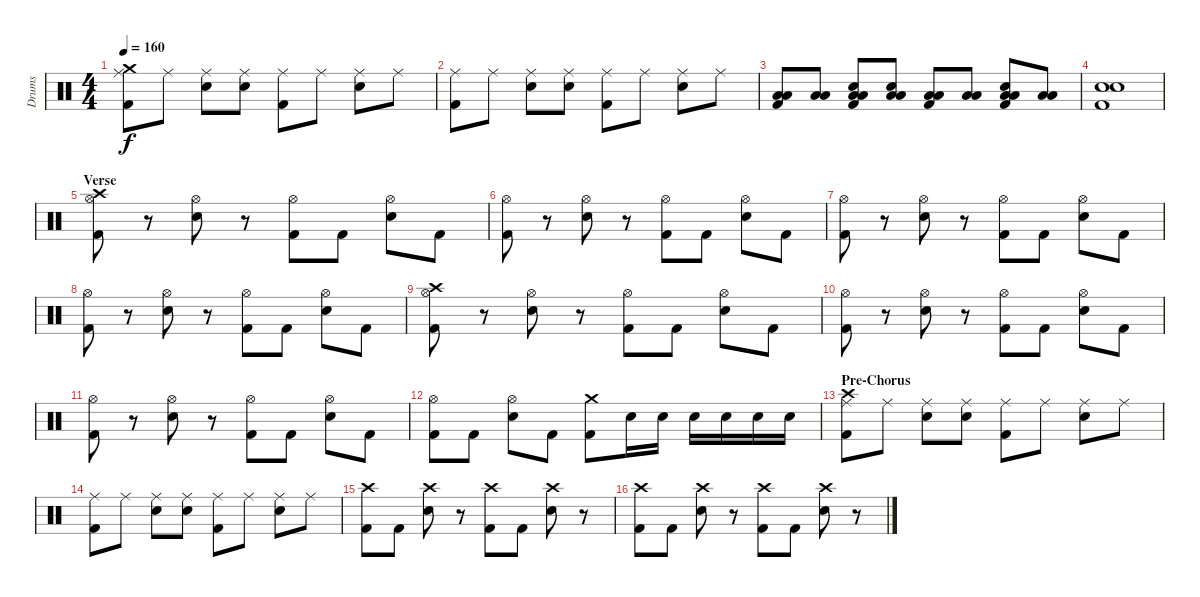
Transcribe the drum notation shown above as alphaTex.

\track ("Drums" "Drums") {instrument percussion}
\staff {score}
\articulation defaults
\ts (4 4)
\tempo 160
\clef neutral
\ks c
("Ride (middle)" "Crash medium (hit)" "Kick (hit) 2").8{dy f} "Ride (middle)".8 ("Ride (middle)" "Snare (hit) 2").8 ("Ride (middle)" "Snare (hit) 2").8 ("Ride (middle)" "Kick (hit) 2").8 "Ride (middle)".8 ("Ride (middle)" "Snare (hit) 2").8 "Ride (middle)".8 |
("Ride (middle)" "Kick (hit) 2").8 "Ride (middle)".8 ("Ride (middle)" "Snare (hit) 2").8 ("Ride (middle)" "Snare (hit) 2").8 ("Ride (middle)" "Kick (hit) 2").8 "Ride (middle)".8 ("Ride (middle)" "Snare (hit) 2").8 "Ride (middle)".8 |
("Low Tom (hit)" "Low Floor Tom (hit)" "Kick (hit) 2").8 ("Low Tom (hit)" "Low Floor Tom (hit)").8 ("Low Tom (hit)" "Low Floor Tom (hit)" "Snare (hit) 2" "Kick (hit) 2").8 ("Low Tom (hit)" "Low Floor Tom (hit)" "Snare (hit) 2").8 ("Low Tom (hit)" "Low Floor Tom (hit)" "Kick (hit) 2").8 ("Low Tom (hit)" "Low Floor Tom (hit)").8 ("Low Tom (hit)" "Low Floor Tom (hit)" "Snare (hit) 2" "Kick (hit) 2").8 ("Low Tom (hit)" "Low Floor Tom (hit)").8 |
("Snare (hit) 2" "Snare (hit) 2" "Kick (hit) 2").1 |
\section ("" "Verse")
("Hi-Hat (open)" "Crash high (hit)" "Kick (hit) 2").8 r.8 ("Hi-Hat (open)" "Snare (hit) 2").8 r.8 ("Hi-Hat (open)" "Kick (hit) 2").8 "Kick (hit) 2".8 ("Hi-Hat (open)" "Snare (hit) 2").8 "Kick (hit) 2".8 |
("Hi-Hat (open)" "Kick (hit) 2").8 r.8 ("Hi-Hat (open)" "Snare (hit) 2").8 r.8 ("Hi-Hat (open)" "Kick (hit) 2").8 "Kick (hit) 2".8 ("Hi-Hat (open)" "Snare (hit) 2").8 "Kick (hit) 2".8 |
("Hi-Hat (open)" "Kick (hit) 2").8 r.8 ("Hi-Hat (open)" "Snare (hit) 2").8 r.8 ("Hi-Hat (open)" "Kick (hit) 2").8 "Kick (hit) 2".8 ("Hi-Hat (open)" "Snare (hit) 2").8 "Kick (hit) 2".8 |
("Hi-Hat (open)" "Kick (hit) 2").8 r.8 ("Hi-Hat (open)" "Snare (hit) 2").8 r.8 ("Hi-Hat (open)" "Kick (hit) 2").8 "Kick (hit) 2".8 ("Hi-Hat (open)" "Snare (hit) 2").8 "Kick (hit) 2".8 |
("Hi-Hat (open)" "Crash high (hit)" "Kick (hit) 2").8 r.8 ("Hi-Hat (open)" "Snare (hit) 2").8 r.8 ("Hi-Hat (open)" "Kick (hit) 2").8 "Kick (hit) 2".8 ("Hi-Hat (open)" "Snare (hit) 2").8 "Kick (hit) 2".8 |
("Hi-Hat (open)" "Kick (hit) 2").8 r.8 ("Hi-Hat (open)" "Snare (hit) 2").8 r.8 ("Hi-Hat (open)" "Kick (hit) 2").8 "Kick (hit) 2".8 ("Hi-Hat (open)" "Snare (hit) 2").8 "Kick (hit) 2".8 |
("Hi-Hat (open)" "Kick (hit) 2").8 r.8 ("Hi-Hat (open)" "Snare (hit) 2").8 r.8 ("Hi-Hat (open)" "Kick (hit) 2").8 "Kick (hit) 2".8 ("Hi-Hat (open)" "Snare (hit) 2").8 "Kick (hit) 2".8 |
("Hi-Hat (open)" "Kick (hit) 2").8 "Kick (hit) 2".8 ("Hi-Hat (open)" "Snare (hit) 2").8 "Kick (hit) 2".8 ("Crash medium (hit)" "Kick (hit) 2").8 "Snare (hit) 2".16 "Snare (hit) 2".16 "Snare (hit) 2".16 "Snare (hit) 2".16 "Snare (hit) 2".16 "Snare (hit) 2".16 |
\section ("" "Pre-Chorus")
("Ride (middle)" "Crash high (hit)" "Kick (hit) 2").8 "Ride (middle)".8 ("Ride (middle)" "Snare (hit) 2").8 ("Ride (middle)" "Snare (hit) 2").8 ("Ride (middle)" "Kick (hit) 2").8 "Ride (middle)".8 ("Ride (middle)" "Snare (hit) 2").8 "Ride (middle)".8 |
("Ride (middle)" "Kick (hit) 2").8 "Ride (middle)".8 ("Ride (middle)" "Snare (hit) 2").8 ("Ride (middle)" "Snare (hit) 2").8 ("Ride (middle)" "Kick (hit) 2").8 "Ride (middle)".8 ("Ride (middle)" "Snare (hit) 2").8 "Ride (middle)".8 |
("Crash high (hit)" "Kick (hit) 2").8 "Kick (hit) 2".8 ("Crash high (hit)" "Snare (hit) 2").8 r.8 ("Crash high (hit)" "Kick (hit) 2").8 "Kick (hit) 2".8 ("Crash high (hit)" "Snare (hit) 2").8 r.8 |
("Crash high (hit)" "Kick (hit) 2").8 "Kick (hit) 2".8 ("Crash high (hit)" "Snare (hit) 2").8 r.8 ("Crash high (hit)" "Kick (hit) 2").8 "Kick (hit) 2".8 ("Crash high (hit)" "Snare (hit) 2").8 r.8
